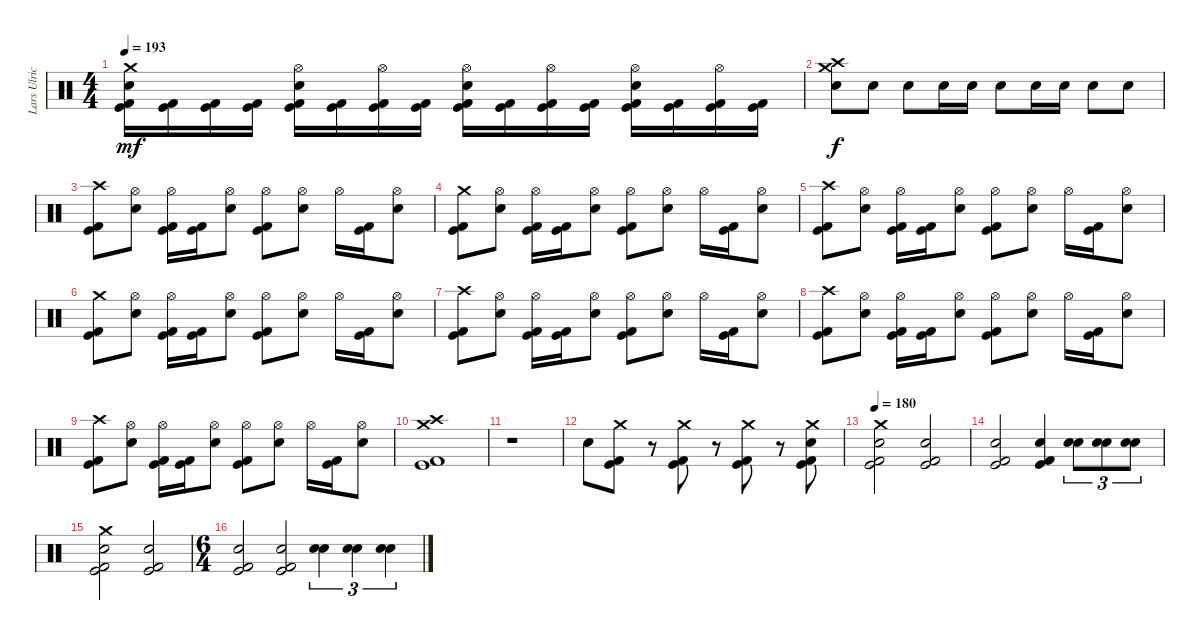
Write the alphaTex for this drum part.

\track ("Lars Ulrich" "Lars Ulric") {instrument percussion}
\staff {score}
\articulation defaults
\ts (4 4)
\tempo 193
\clef neutral
\ks c
("Crash medium (hit)" "Electric Snare (hit)" "Kick (hit) 2" "Kick (hit)").16{dy mf} ("Kick (hit) 2" "Kick (hit)").16 ("Kick (hit) 2" "Kick (hit)").16 ("Kick (hit) 2" "Kick (hit)").16 ("Hi-Hat (open)" "Electric Snare (hit)" "Kick (hit) 2" "Kick (hit)").16 ("Kick (hit) 2" "Kick (hit)").16 ("Hi-Hat (open)" "Kick (hit) 2" "Kick (hit)").16 ("Kick (hit) 2" "Kick (hit)").16 ("Hi-Hat (open)" "Electric Snare (hit)" "Kick (hit) 2" "Kick (hit)").16 ("Kick (hit) 2" "Kick (hit)").16 ("Hi-Hat (open)" "Kick (hit) 2" "Kick (hit)").16 ("Kick (hit) 2" "Kick (hit)").16 ("Hi-Hat (open)" "Electric Snare (hit)" "Kick (hit) 2" "Kick (hit)").16 ("Kick (hit) 2" "Kick (hit)").16 ("Hi-Hat (open)" "Kick (hit) 2" "Kick (hit)").16 ("Kick (hit) 2" "Kick (hit)").16 |
("Crash medium (hit)" "Crash high (hit)" "Electric Snare (hit)").8{dy f} "Electric Snare (hit)".8 "Electric Snare (hit)".8 "Electric Snare (hit)".16 "Electric Snare (hit)".16 "Electric Snare (hit)".8 "Electric Snare (hit)".16 "Electric Snare (hit)".16 "Electric Snare (hit)".8 "Electric Snare (hit)".8 |
("Crash high (hit)" "Kick (hit) 2" "Kick (hit)").8 ("Hi-Hat (open)" "Electric Snare (hit)").8 ("Hi-Hat (open)" "Kick (hit) 2" "Kick (hit)").16 ("Kick (hit) 2" "Kick (hit)").16 ("Hi-Hat (open)" "Electric Snare (hit)").8 ("Hi-Hat (open)" "Kick (hit) 2" "Kick (hit)").8 ("Hi-Hat (open)" "Electric Snare (hit)").8 "Hi-Hat (open)".16 ("Kick (hit) 2" "Kick (hit)").16 ("Hi-Hat (open)" "Electric Snare (hit)").8 |
("Crash medium (hit)" "Kick (hit) 2" "Kick (hit)").8 ("Hi-Hat (open)" "Electric Snare (hit)").8 ("Hi-Hat (open)" "Kick (hit) 2" "Kick (hit)").16 ("Kick (hit) 2" "Kick (hit)").16 ("Hi-Hat (open)" "Electric Snare (hit)").8 ("Hi-Hat (open)" "Kick (hit) 2" "Kick (hit)").8 ("Hi-Hat (open)" "Electric Snare (hit)").8 "Hi-Hat (open)".16 ("Kick (hit) 2" "Kick (hit)").16 ("Hi-Hat (open)" "Electric Snare (hit)").8 |
("Crash high (hit)" "Kick (hit) 2" "Kick (hit)").8 ("Hi-Hat (open)" "Electric Snare (hit)").8 ("Hi-Hat (open)" "Kick (hit) 2" "Kick (hit)").16 ("Kick (hit) 2" "Kick (hit)").16 ("Hi-Hat (open)" "Electric Snare (hit)").8 ("Hi-Hat (open)" "Kick (hit) 2" "Kick (hit)").8 ("Hi-Hat (open)" "Electric Snare (hit)").8 "Hi-Hat (open)".16 ("Kick (hit) 2" "Kick (hit)").16 ("Hi-Hat (open)" "Electric Snare (hit)").8 |
("Crash medium (hit)" "Kick (hit) 2" "Kick (hit)").8 ("Hi-Hat (open)" "Electric Snare (hit)").8 ("Hi-Hat (open)" "Kick (hit) 2" "Kick (hit)").16 ("Kick (hit) 2" "Kick (hit)").16 ("Hi-Hat (open)" "Electric Snare (hit)").8 ("Hi-Hat (open)" "Kick (hit) 2" "Kick (hit)").8 ("Hi-Hat (open)" "Electric Snare (hit)").8 "Hi-Hat (open)".16 ("Kick (hit) 2" "Kick (hit)").16 ("Hi-Hat (open)" "Electric Snare (hit)").8 |
("Crash high (hit)" "Kick (hit) 2" "Kick (hit)").8 ("Hi-Hat (open)" "Electric Snare (hit)").8 ("Hi-Hat (open)" "Kick (hit) 2" "Kick (hit)").16 ("Kick (hit) 2" "Kick (hit)").16 ("Hi-Hat (open)" "Electric Snare (hit)").8 ("Hi-Hat (open)" "Kick (hit) 2" "Kick (hit)").8 ("Hi-Hat (open)" "Electric Snare (hit)").8 "Hi-Hat (open)".16 ("Kick (hit) 2" "Kick (hit)").16 ("Hi-Hat (open)" "Electric Snare (hit)").8 |
("Crash high (hit)" "Kick (hit) 2" "Kick (hit)").8 ("Hi-Hat (open)" "Electric Snare (hit)").8 ("Hi-Hat (open)" "Kick (hit) 2" "Kick (hit)").16 ("Kick (hit) 2" "Kick (hit)").16 ("Hi-Hat (open)" "Electric Snare (hit)").8 ("Hi-Hat (open)" "Kick (hit) 2" "Kick (hit)").8 ("Hi-Hat (open)" "Electric Snare (hit)").8 "Hi-Hat (open)".16 ("Kick (hit) 2" "Kick (hit)").16 ("Hi-Hat (open)" "Electric Snare (hit)").8 |
("Crash high (hit)" "Kick (hit) 2" "Kick (hit)").8 ("Hi-Hat (open)" "Electric Snare (hit)").8 ("Hi-Hat (open)" "Kick (hit) 2" "Kick (hit)").16 ("Kick (hit) 2" "Kick (hit)").16 ("Hi-Hat (open)" "Electric Snare (hit)").8 ("Hi-Hat (open)" "Kick (hit) 2" "Kick (hit)").8 ("Hi-Hat (open)" "Electric Snare (hit)").8 "Hi-Hat (open)".16 ("Kick (hit) 2" "Kick (hit)").16 ("Hi-Hat (open)" "Electric Snare (hit)").8 |
("Crash medium (hit)" "Crash high (hit)" "Kick (hit) 2" "Kick (hit)").1 |
r.1 |
"Electric Snare (hit)".8 ("Crash medium (hit)" "Kick (hit) 2" "Kick (hit)").8 r.8 ("Crash medium (hit)" "Kick (hit)" "Kick (hit) 2").8 r.8 ("Crash medium (hit)" "Kick (hit)" "Kick (hit) 2").8 r.8 ("Crash medium (hit)" "Electric Snare (hit)" "Kick (hit)" "Kick (hit) 2").8 |
\tempo 180
("Crash medium (hit)" "Electric Snare (hit)" "Kick (hit) 2" "Kick (hit)").2 ("Electric Snare (hit)" "Kick (hit) 2" "Kick (hit)").2 |
("Electric Snare (hit)" "Kick (hit) 2" "Kick (hit)").2 ("Electric Snare (hit)" "Kick (hit) 2" "Kick (hit)").4 ("Electric Snare (hit)" "Electric Snare (hit)").8{tu (3 2)} ("Electric Snare (hit)" "Electric Snare (hit)").8{tu (3 2)} ("Electric Snare (hit)" "Electric Snare (hit)").8{tu (3 2)} |
("Crash medium (hit)" "Electric Snare (hit)" "Kick (hit) 2" "Kick (hit)").2 ("Electric Snare (hit)" "Kick (hit) 2" "Kick (hit)").2 |
\ts (6 4)
("Electric Snare (hit)" "Kick (hit) 2" "Kick (hit)").2 ("Electric Snare (hit)" "Kick (hit) 2" "Kick (hit)").2 ("Electric Snare (hit)" "Electric Snare (hit)").4{tu (3 2)} ("Electric Snare (hit)" "Electric Snare (hit)").4{tu (3 2)} ("Electric Snare (hit)" "Electric Snare (hit)").4{tu (3 2)}
